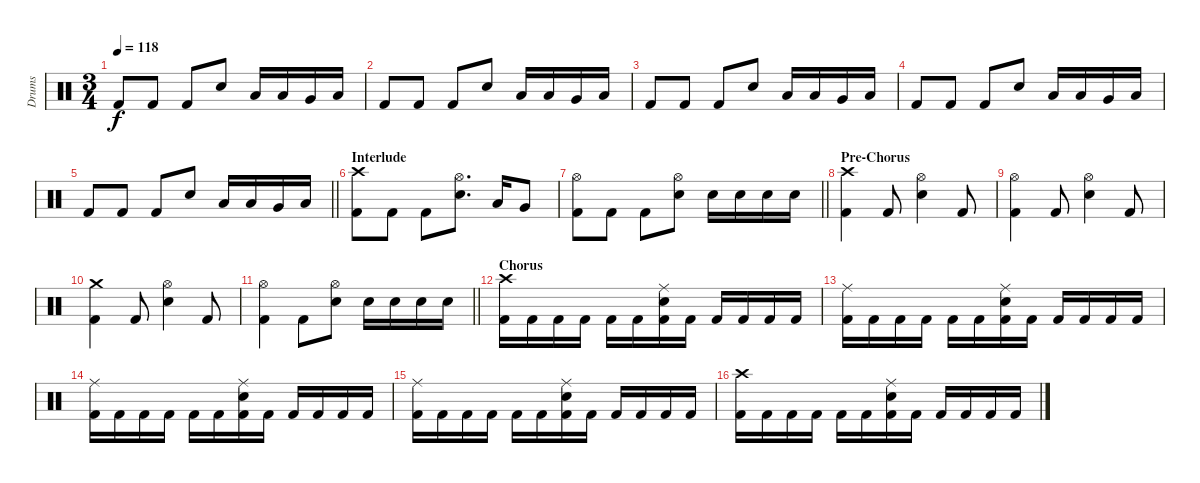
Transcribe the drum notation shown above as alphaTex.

\track ("Drums" "Drums") {instrument percussion}
\staff {score}
\articulation defaults
\ts (3 4)
\tempo 118
\clef neutral
\ks c "Kick (hit) 2".8{dy f} "Kick (hit) 2".8 "Kick (hit) 2".8 "Snare (hit) 2".8 "Low Tom (hit)".16 "Low Tom (hit)".16 "Very Low Tom (hit)".16 "Low Floor Tom (hit)".16
|
"Kick (hit) 2".8 "Kick (hit) 2".8 "Kick (hit) 2".8 "Snare (hit) 2".8 "Low Tom (hit)".16 "Low Tom (hit)".16 "Very Low Tom (hit)".16 "Low Floor Tom (hit)".16 |
"Kick (hit) 2".8 "Kick (hit) 2".8 "Kick (hit) 2".8 "Snare (hit) 2".8 "Low Tom (hit)".16 "Low Tom (hit)".16 "Very Low Tom (hit)".16 "Low Floor Tom (hit)".16 |
"Kick (hit) 2".8 "Kick (hit) 2".8 "Kick (hit) 2".8 "Snare (hit) 2".8 "Low Tom (hit)".16 "Low Tom (hit)".16 "Very Low Tom (hit)".16 "Low Floor Tom (hit)".16 |
\barLineRight lightlight "Kick (hit) 2".8 "Kick (hit) 2".8 "Kick (hit) 2".8 "Snare (hit) 2".8 "Low Tom (hit)".16 "Low Tom (hit)".16 "Very Low Tom (hit)".16 "Low Floor Tom (hit)".16
|
\section ("" "Interlude")
("Crash high (hit)" "Kick (hit) 2").8 "Kick (hit) 2".8 "Kick (hit) 2".8 ("Hi-Hat (open)" "Snare (hit) 2").8{d} "Low Tom (hit)".16 "Very Low Tom (hit)".8 |
\barLineRight lightlight
("Hi-Hat (open)" "Kick (hit) 2").8 "Kick (hit) 2".8 "Kick (hit) 2".8 ("Hi-Hat (open)" "Snare (hit) 2").8 "Snare (hit) 2".16 "Snare (hit) 2".16 "Snare (hit) 2".16 "Snare (hit) 2".16 |
\section ("" "Pre-Chorus")
("Crash high (hit)" "Kick (hit) 2").4 "Kick (hit) 2".8 ("Hi-Hat (open)" "Snare (hit) 2").4 "Kick (hit) 2".8 |
("Hi-Hat (open)" "Kick (hit) 2").4 "Kick (hit) 2".8 ("Hi-Hat (open)" "Snare (hit) 2").4 "Kick (hit) 2".8 |
("Crash medium (hit)" "Kick (hit) 2").4 "Kick (hit) 2".8 ("Hi-Hat (open)" "Snare (hit) 2").4 "Kick (hit) 2".8 |
\barLineRight lightlight
("Hi-Hat (open)" "Kick (hit) 2").4 "Kick (hit) 2".8 ("Hi-Hat (open)" "Snare (hit) 2").8 "Snare (hit) 2".16 "Snare (hit) 2".16 "Snare (hit) 2".16 "Snare (hit) 2".16 |
\section ("" "Chorus")
("Crash high (hit)" "Kick (hit) 2").16 "Kick (hit) 2".16 "Kick (hit) 2".16 "Kick (hit) 2".16 "Kick (hit) 2".16 "Kick (hit) 2".16 ("Ride (middle)" "Snare (hit) 2" "Kick (hit) 2").16 "Kick (hit) 2".16 "Kick (hit) 2".16 "Kick (hit) 2".16 "Kick (hit) 2".16 "Kick (hit) 2".16 |
("Ride (middle)" "Kick (hit) 2").16 "Kick (hit) 2".16 "Kick (hit) 2".16 "Kick (hit) 2".16 "Kick (hit) 2".16 "Kick (hit) 2".16 ("Ride (middle)" "Snare (hit) 2" "Kick (hit) 2").16 "Kick (hit) 2".16 "Kick (hit) 2".16 "Kick (hit) 2".16 "Kick (hit) 2".16 "Kick (hit) 2".16 |
("Ride (middle)" "Kick (hit) 2").16 "Kick (hit) 2".16 "Kick (hit) 2".16 "Kick (hit) 2".16 "Kick (hit) 2".16 "Kick (hit) 2".16 ("Ride (middle)" "Snare (hit) 2" "Kick (hit) 2").16 "Kick (hit) 2".16 "Kick (hit) 2".16 "Kick (hit) 2".16 "Kick (hit) 2".16 "Kick (hit) 2".16 |
("Ride (middle)" "Kick (hit) 2").16 "Kick (hit) 2".16 "Kick (hit) 2".16 "Kick (hit) 2".16 "Kick (hit) 2".16 "Kick (hit) 2".16 ("Ride (middle)" "Snare (hit) 2" "Kick (hit) 2").16 "Kick (hit) 2".16 "Kick (hit) 2".16 "Kick (hit) 2".16 "Kick (hit) 2".16 "Kick (hit) 2".16 |
("Crash high (hit)" "Kick (hit) 2").16 "Kick (hit) 2".16 "Kick (hit) 2".16 "Kick (hit) 2".16 "Kick (hit) 2".16 "Kick (hit) 2".16 ("Ride (middle)" "Snare (hit) 2" "Kick (hit) 2").16 "Kick (hit) 2".16 "Kick (hit) 2".16 "Kick (hit) 2".16 "Kick (hit) 2".16 "Kick (hit) 2".16
